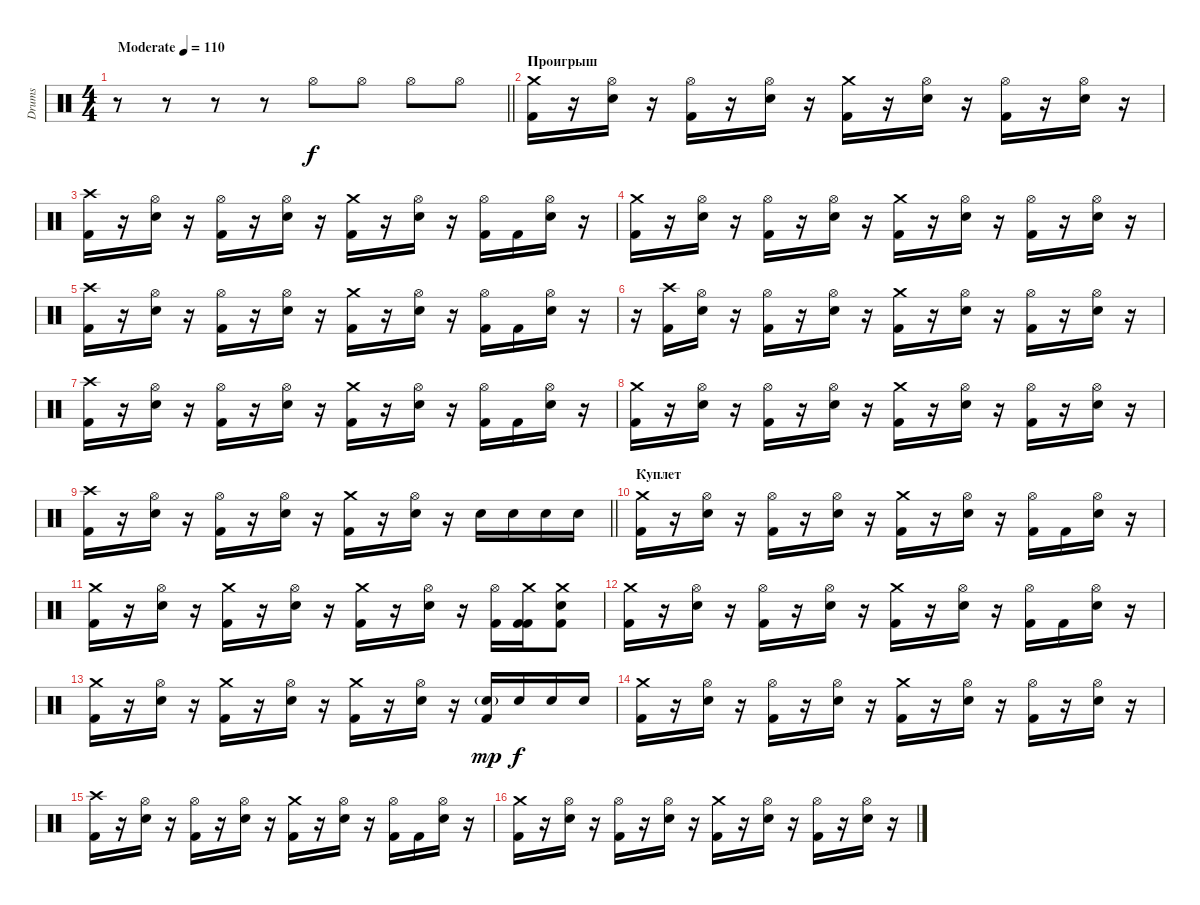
\track ("Drums" "Drums") {instrument percussion}
\staff {score}
\articulation defaults
\ts (4 4)
\tempo (110 "Moderate")
\clef neutral
\barLineRight lightlight
\ks c
r.8{dy f} r.8 r.8 r.8 "Hi-Hat (open)".8 "Hi-Hat (open)".8 "Hi-Hat (open)".8 "Hi-Hat (open)".8 |
\section ("" "Проигрыш")
("Kick (hit) 2" "Crash medium (hit)").16 r.16 ("Electric Snare (hit)" "Hi-Hat (open)").16 r.16 ("Kick (hit) 2" "Hi-Hat (open)").16 r.16 ("Electric Snare (hit)" "Hi-Hat (open)").16 r.16 ("Kick (hit) 2" "Crash medium (hit)").16 r.16 ("Electric Snare (hit)" "Hi-Hat (open)").16 r.16 ("Kick (hit) 2" "Hi-Hat (open)").16 r.16 ("Electric Snare (hit)" "Hi-Hat (open)").16 r.16 |
("Kick (hit) 2" "Crash high (hit)").16 r.16 ("Electric Snare (hit)" "Hi-Hat (open)").16 r.16 ("Kick (hit) 2" "Hi-Hat (open)").16 r.16 ("Electric Snare (hit)" "Hi-Hat (open)").16 r.16 ("Kick (hit) 2" "Crash medium (hit)").16 r.16 ("Electric Snare (hit)" "Hi-Hat (open)").16 r.16 ("Kick (hit) 2" "Hi-Hat (open)").16 "Kick (hit) 2".16 ("Electric Snare (hit)" "Hi-Hat (open)").16 r.16 |
("Kick (hit) 2" "Crash medium (hit)").16 r.16 ("Electric Snare (hit)" "Hi-Hat (open)").16 r.16 ("Kick (hit) 2" "Hi-Hat (open)").16 r.16 ("Electric Snare (hit)" "Hi-Hat (open)").16 r.16 ("Kick (hit) 2" "Crash medium (hit)").16 r.16 ("Electric Snare (hit)" "Hi-Hat (open)").16 r.16 ("Kick (hit) 2" "Hi-Hat (open)").16 r.16 ("Electric Snare (hit)" "Hi-Hat (open)").16 r.16 |
("Kick (hit) 2" "Crash high (hit)").16 r.16 ("Electric Snare (hit)" "Hi-Hat (open)").16 r.16 ("Kick (hit) 2" "Hi-Hat (open)").16 r.16 ("Electric Snare (hit)" "Hi-Hat (open)").16 r.16 ("Kick (hit) 2" "Crash medium (hit)").16 r.16 ("Electric Snare (hit)" "Hi-Hat (open)").16 r.16 ("Kick (hit) 2" "Hi-Hat (open)").16 "Kick (hit) 2".16 ("Electric Snare (hit)" "Hi-Hat (open)").16 r.16 |
r.16 ("Kick (hit) 2" "Crash high (hit)").16 ("Electric Snare (hit)" "Hi-Hat (open)").16 r.16 ("Kick (hit) 2" "Hi-Hat (open)").16 r.16 ("Electric Snare (hit)" "Hi-Hat (open)").16 r.16 ("Kick (hit) 2" "Crash medium (hit)").16 r.16 ("Electric Snare (hit)" "Hi-Hat (open)").16 r.16 ("Kick (hit) 2" "Hi-Hat (open)").16 r.16 ("Electric Snare (hit)" "Hi-Hat (open)").16 r.16 |
("Kick (hit) 2" "Crash high (hit)").16 r.16 ("Electric Snare (hit)" "Hi-Hat (open)").16 r.16 ("Kick (hit) 2" "Hi-Hat (open)").16 r.16 ("Electric Snare (hit)" "Hi-Hat (open)").16 r.16 ("Kick (hit) 2" "Crash medium (hit)").16 r.16 ("Electric Snare (hit)" "Hi-Hat (open)").16 r.16 ("Kick (hit) 2" "Hi-Hat (open)").16 "Kick (hit) 2".16 ("Electric Snare (hit)" "Hi-Hat (open)").16 r.16 |
("Kick (hit) 2" "Crash medium (hit)").16 r.16 ("Electric Snare (hit)" "Hi-Hat (open)").16 r.16 ("Kick (hit) 2" "Hi-Hat (open)").16 r.16 ("Electric Snare (hit)" "Hi-Hat (open)").16 r.16 ("Kick (hit) 2" "Crash medium (hit)").16 r.16 ("Electric Snare (hit)" "Hi-Hat (open)").16 r.16 ("Kick (hit) 2" "Hi-Hat (open)").16 r.16 ("Electric Snare (hit)" "Hi-Hat (open)").16 r.16 |
\barLineRight lightlight
("Kick (hit) 2" "Crash high (hit)").16 r.16 ("Electric Snare (hit)" "Hi-Hat (open)").16 r.16 ("Kick (hit) 2" "Hi-Hat (open)").16 r.16 ("Electric Snare (hit)" "Hi-Hat (open)").16 r.16 ("Kick (hit) 2" "Crash medium (hit)").16 r.16 ("Electric Snare (hit)" "Hi-Hat (open)").16 r.16 "Electric Snare (hit)".16 "Electric Snare (hit)".16 "Electric Snare (hit)".16 "Electric Snare (hit)".16 |
\section ("" "Куплет")
("Kick (hit) 2" "Crash medium (hit)").16 r.16 ("Electric Snare (hit)" "Hi-Hat (open)").16 r.16 ("Kick (hit) 2" "Hi-Hat (open)").16 r.16 ("Electric Snare (hit)" "Hi-Hat (open)").16 r.16 ("Kick (hit) 2" "Crash medium (hit)").16 r.16 ("Electric Snare (hit)" "Hi-Hat (open)").16 r.16 ("Kick (hit) 2" "Hi-Hat (open)").16 "Kick (hit) 2".16 ("Electric Snare (hit)" "Hi-Hat (open)").16 r.16 |
("Kick (hit) 2" "Crash medium (hit)").16 r.16 ("Electric Snare (hit)" "Hi-Hat (open)").16 r.16 ("Kick (hit) 2" "Crash medium (hit)").16 r.16 ("Electric Snare (hit)" "Hi-Hat (open)").16 r.16 ("Kick (hit) 2" "Crash medium (hit)").16 r.16 ("Electric Snare (hit)" "Hi-Hat (open)").16 r.16 ("Kick (hit) 2" "Hi-Hat (open)").16 ("Kick (hit) 2" "Kick (hit) 2" "Crash medium (hit)").16 ("Kick (hit) 2" "Electric Snare (hit)" "Crash medium (hit)").8 |
("Kick (hit) 2" "Crash medium (hit)").16 r.16 ("Electric Snare (hit)" "Hi-Hat (open)").16 r.16 ("Kick (hit) 2" "Hi-Hat (open)").16 r.16 ("Electric Snare (hit)" "Hi-Hat (open)").16 r.16 ("Kick (hit) 2" "Crash medium (hit)").16 r.16 ("Electric Snare (hit)" "Hi-Hat (open)").16 r.16 ("Kick (hit) 2" "Hi-Hat (open)").16 "Kick (hit) 2".16 ("Electric Snare (hit)" "Hi-Hat (open)").16 r.16 |
("Kick (hit) 2" "Crash medium (hit)").16 r.16 ("Electric Snare (hit)" "Hi-Hat (open)").16 r.16 ("Kick (hit) 2" "Crash medium (hit)").16 r.16 ("Electric Snare (hit)" "Hi-Hat (open)").16 r.16 ("Kick (hit) 2" "Crash medium (hit)").16 r.16 ("Electric Snare (hit)" "Hi-Hat (open)").16 r.16 ("Electric Snare (hit)"{g} "Kick (hit) 2").16{dy mp} "Electric Snare (hit)".16{dy f} "Electric Snare (hit)".16 "Electric Snare (hit)".16 |
("Kick (hit) 2" "Crash medium (hit)").16 r.16 ("Electric Snare (hit)" "Hi-Hat (open)").16 r.16 ("Kick (hit) 2" "Hi-Hat (open)").16 r.16 ("Electric Snare (hit)" "Hi-Hat (open)").16 r.16 ("Kick (hit) 2" "Crash medium (hit)").16 r.16 ("Electric Snare (hit)" "Hi-Hat (open)").16 r.16 ("Kick (hit) 2" "Hi-Hat (open)").16 r.16 ("Electric Snare (hit)" "Hi-Hat (open)").16 r.16 |
("Kick (hit) 2" "Crash high (hit)").16 r.16 ("Electric Snare (hit)" "Hi-Hat (open)").16 r.16 ("Kick (hit) 2" "Hi-Hat (open)").16 r.16 ("Electric Snare (hit)" "Hi-Hat (open)").16 r.16 ("Kick (hit) 2" "Crash medium (hit)").16 r.16 ("Electric Snare (hit)" "Hi-Hat (open)").16 r.16 ("Kick (hit) 2" "Hi-Hat (open)").16 "Kick (hit) 2".16 ("Electric Snare (hit)" "Hi-Hat (open)").16 r.16 |
("Kick (hit) 2" "Crash medium (hit)").16 r.16 ("Electric Snare (hit)" "Hi-Hat (open)").16 r.16 ("Kick (hit) 2" "Hi-Hat (open)").16 r.16 ("Electric Snare (hit)" "Hi-Hat (open)").16 r.16 ("Kick (hit) 2" "Crash medium (hit)").16 r.16 ("Electric Snare (hit)" "Hi-Hat (open)").16 r.16 ("Kick (hit) 2" "Hi-Hat (open)").16 r.16 ("Electric Snare (hit)" "Hi-Hat (open)").16 r.16
